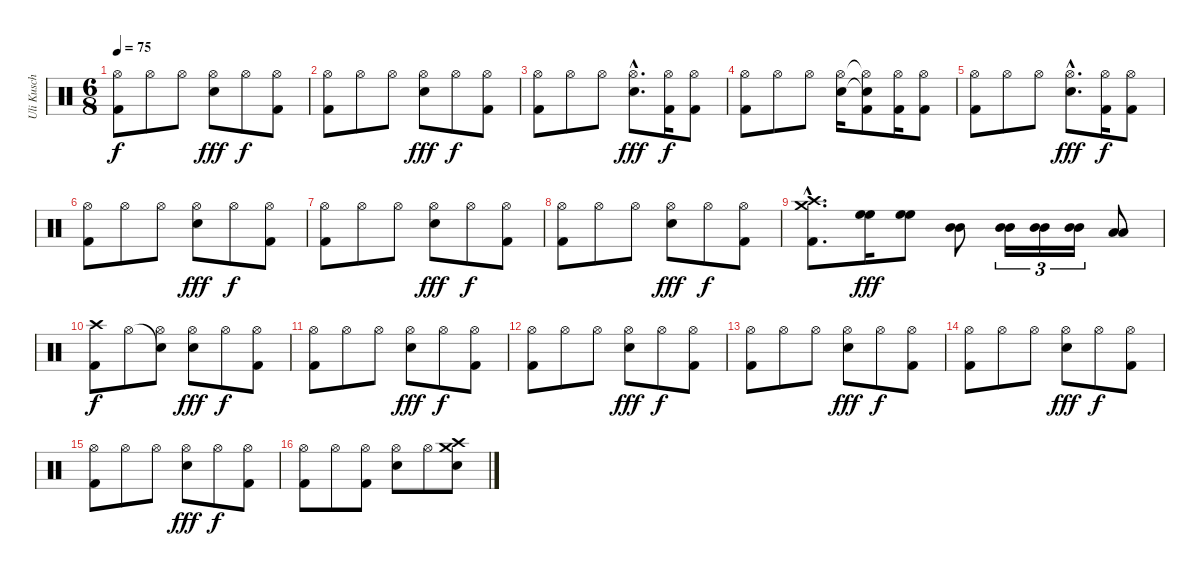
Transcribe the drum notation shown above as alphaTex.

\track ("Uli Kusch" "Uli Kusch") {instrument percussion}
\staff {score}
\articulation defaults
\ts (6 8)
\tempo 75
\clef neutral
\ks c
("Hi-Hat (open)" "Kick (hit) 2").8{dy f} "Hi-Hat (open)".8 "Hi-Hat (open)".8 ("Hi-Hat (open)" "Electric Snare (hit)").8{dy fff} "Hi-Hat (open)".8{dy f} ("Hi-Hat (open)" "Kick (hit) 2").8 |
("Hi-Hat (open)" "Kick (hit) 2").8 "Hi-Hat (open)".8 "Hi-Hat (open)".8 ("Hi-Hat (open)" "Electric Snare (hit)").8{dy fff} "Hi-Hat (open)".8{dy f} ("Hi-Hat (open)" "Kick (hit) 2").8 |
("Hi-Hat (open)" "Kick (hit) 2").8 "Hi-Hat (open)".8 "Hi-Hat (open)".8 ("Hi-Hat (open)"{hac} "Electric Snare (hit)"{hac}).8{d dy fff} ("Hi-Hat (open)" "Kick (hit) 2").16{dy f} ("Hi-Hat (open)" "Kick (hit) 2").8 |
("Hi-Hat (open)" "Kick (hit) 2").8 "Hi-Hat (open)".8 "Hi-Hat (open)".8 ("Hi-Hat (open)" "Electric Snare (hit)").16 ("Hi-Hat (open)"{t} "Snare (hit)"{t} "Kick (hit) 2").8 ("Hi-Hat (open)" "Kick (hit) 2").16 ("Hi-Hat (open)" "Kick (hit) 2").8 |
("Hi-Hat (open)" "Kick (hit) 2").8 "Hi-Hat (open)".8 "Hi-Hat (open)".8 ("Hi-Hat (open)"{hac} "Electric Snare (hit)"{hac}).8{d dy fff} ("Hi-Hat (open)" "Kick (hit) 2").16{dy f} ("Hi-Hat (open)" "Kick (hit) 2").8 |
("Hi-Hat (open)" "Kick (hit) 2").8 "Hi-Hat (open)".8 "Hi-Hat (open)".8 ("Hi-Hat (open)" "Electric Snare (hit)").8{dy fff} "Hi-Hat (open)".8{dy f} ("Hi-Hat (open)" "Kick (hit) 2").8 |
("Hi-Hat (open)" "Kick (hit) 2").8 "Hi-Hat (open)".8 "Hi-Hat (open)".8 ("Hi-Hat (open)" "Electric Snare (hit)").8{dy fff} "Hi-Hat (open)".8{dy f} ("Hi-Hat (open)" "Kick (hit) 2").8 |
("Hi-Hat (open)" "Kick (hit) 2").8 "Hi-Hat (open)".8 "Hi-Hat (open)".8 ("Hi-Hat (open)" "Electric Snare (hit)").8{dy fff} "Hi-Hat (open)".8{dy f} ("Hi-Hat (open)" "Kick (hit) 2").8 |
("Crash high (hit)"{hac} "Crash medium (hit)"{hac} "Kick (hit) 2"{hac}).8{d} ("High Floor Tom (hit)" "High Floor Tom (hit)").16{dy fff} ("High Floor Tom (hit)" "High Floor Tom (hit)").8 ("Mid Tom (hit)" "Mid Tom (hit)").8 ("Mid Tom (hit)" "Mid Tom (hit)").16{tu (3 2)} ("Mid Tom (hit)" "Mid Tom (hit)").16{tu (3 2)} ("Mid Tom (hit)" "Mid Tom (hit)").16{tu (3 2)} ("Low Tom (hit)" "Low Tom (hit)").8 |
("Crash high (hit)" "Kick (hit) 2").8{dy f} "Hi-Hat (open)".8 ("Snare (hit)"{t} "Hi-Hat (open)").8 ("Hi-Hat (open)" "Electric Snare (hit)").8{dy fff} "Hi-Hat (open)".8{dy f} ("Hi-Hat (open)" "Kick (hit) 2").8 |
("Hi-Hat (open)" "Kick (hit) 2").8 "Hi-Hat (open)".8 "Hi-Hat (open)".8 ("Hi-Hat (open)" "Electric Snare (hit)").8{dy fff} "Hi-Hat (open)".8{dy f} ("Hi-Hat (open)" "Kick (hit) 2").8 |
("Hi-Hat (open)" "Kick (hit) 2").8 "Hi-Hat (open)".8 "Hi-Hat (open)".8 ("Hi-Hat (open)" "Electric Snare (hit)").8{dy fff} "Hi-Hat (open)".8{dy f} ("Hi-Hat (open)" "Kick (hit) 2").8 |
("Hi-Hat (open)" "Kick (hit) 2").8 "Hi-Hat (open)".8 "Hi-Hat (open)".8 ("Hi-Hat (open)" "Electric Snare (hit)").8{dy fff} "Hi-Hat (open)".8{dy f} ("Hi-Hat (open)" "Kick (hit) 2").8 |
("Hi-Hat (open)" "Kick (hit) 2").8 "Hi-Hat (open)".8 "Hi-Hat (open)".8 ("Hi-Hat (open)" "Electric Snare (hit)").8{dy fff} "Hi-Hat (open)".8{dy f} ("Hi-Hat (open)" "Kick (hit) 2").8 |
("Hi-Hat (open)" "Kick (hit) 2").8 "Hi-Hat (open)".8 "Hi-Hat (open)".8 ("Hi-Hat (open)" "Electric Snare (hit)").8{dy fff} "Hi-Hat (open)".8{dy f} ("Hi-Hat (open)" "Kick (hit) 2").8 |
("Hi-Hat (open)" "Kick (hit) 2").8 "Hi-Hat (open)".8 ("Hi-Hat (open)" "Kick (hit) 2").8 ("Hi-Hat (open)" "Electric Snare (hit)").8 "Hi-Hat (open)".8 ("Crash high (hit)" "Crash medium (hit)" "Electric Snare (hit)").8
